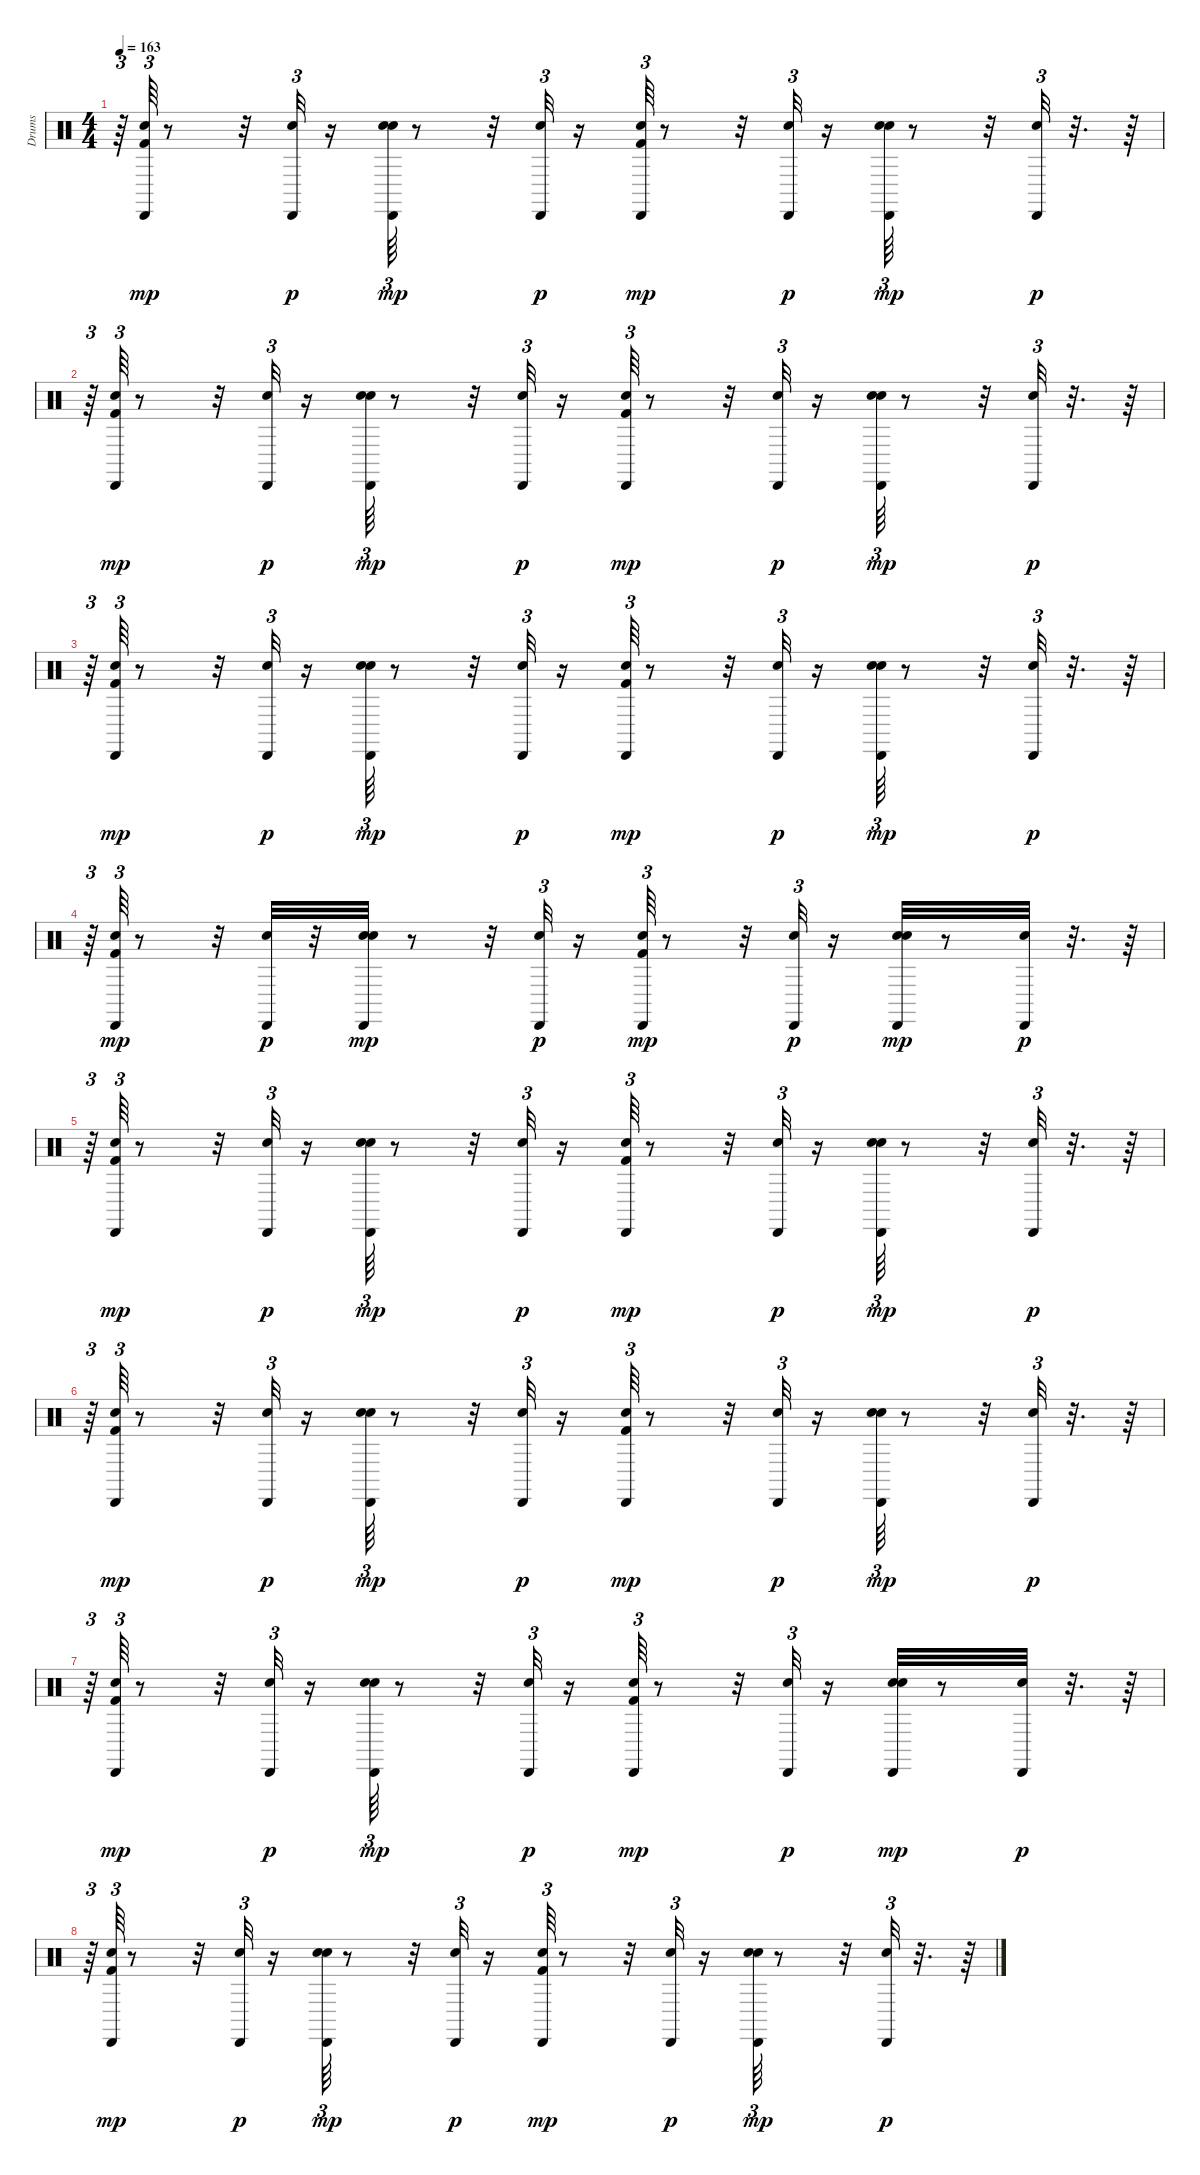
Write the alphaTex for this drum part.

\track ("Drums               " "Drums     ") {instrument percussion}
\staff {score}
\articulation defaults
\ts (4 4)
\tempo 163
\clef neutral
\ks c
r.64{tu (3 2) dy p} ("Kick (hit) 2" "Snare (hit) 2" "Cabasa (hit)").64{tu (3 2) dy mp} r.8 r.32 ("Snare (hit) 2" "Cabasa (hit)").32{tu (3 2) dy p} r.16 ("Snare (hit) 2" "Hand Clap (hit)" "Cabasa (hit)").64{tu (3 2) dy mp} r.8 r.32 ("Snare (hit) 2" "Cabasa (hit)").32{tu (3 2) dy p} r.16 ("Kick (hit) 2" "Snare (hit) 2" "Cabasa (hit)").64{tu (3 2) dy mp} r.8 r.32 ("Snare (hit) 2" "Cabasa (hit)").32{tu (3 2) dy p} r.16 ("Snare (hit) 2" "Hand Clap (hit)" "Cabasa (hit)").64{tu (3 2) dy mp} r.8 r.32 ("Snare (hit) 2" "Cabasa (hit)").32{tu (3 2) dy p} r.32{d} r.64 |
r.64{tu (3 2)} ("Kick (hit) 2" "Snare (hit) 2" "Cabasa (hit)").64{tu (3 2) dy mp} r.8 r.32 ("Snare (hit) 2" "Cabasa (hit)").32{tu (3 2) dy p} r.16 ("Snare (hit) 2" "Hand Clap (hit)" "Cabasa (hit)").64{tu (3 2) dy mp} r.8 r.32 ("Snare (hit) 2" "Cabasa (hit)").32{tu (3 2) dy p} r.16 ("Kick (hit) 2" "Snare (hit) 2" "Cabasa (hit)").64{tu (3 2) dy mp} r.8 r.32 ("Snare (hit) 2" "Cabasa (hit)").32{tu (3 2) dy p} r.16 ("Snare (hit) 2" "Hand Clap (hit)" "Cabasa (hit)").64{tu (3 2) dy mp} r.8 r.32 ("Snare (hit) 2" "Cabasa (hit)").32{tu (3 2) dy p} r.32{d} r.64 |
r.64{tu (3 2)} ("Kick (hit) 2" "Snare (hit) 2" "Cabasa (hit)").64{tu (3 2) dy mp} r.8 r.32 ("Snare (hit) 2" "Cabasa (hit)").32{tu (3 2) dy p} r.16 ("Snare (hit) 2" "Hand Clap (hit)" "Cabasa (hit)").64{tu (3 2) dy mp} r.8 r.32 ("Snare (hit) 2" "Cabasa (hit)").32{tu (3 2) dy p} r.16 ("Kick (hit) 2" "Snare (hit) 2" "Cabasa (hit)").64{tu (3 2) dy mp} r.8 r.32 ("Snare (hit) 2" "Cabasa (hit)").32{tu (3 2) dy p} r.16 ("Snare (hit) 2" "Hand Clap (hit)" "Cabasa (hit)").64{tu (3 2) dy mp} r.8 r.32 ("Snare (hit) 2" "Cabasa (hit)").32{tu (3 2) dy p} r.32{d} r.64 |
r.64{tu (3 2)} ("Kick (hit) 2" "Snare (hit) 2" "Cabasa (hit)").64{tu (3 2) dy mp} r.8 r.32 ("Snare (hit) 2" "Cabasa (hit)").32{dy p} r.32 ("Snare (hit) 2" "Hand Clap (hit)" "Cabasa (hit)").32{dy mp} r.8 r.32 ("Snare (hit) 2" "Cabasa (hit)").32{tu (3 2) dy p} r.16 ("Kick (hit) 2" "Snare (hit) 2" "Cabasa (hit)").64{tu (3 2) dy mp} r.8 r.32 ("Snare (hit) 2" "Cabasa (hit)").32{tu (3 2) dy p} r.16 ("Snare (hit) 2" "Hand Clap (hit)" "Cabasa (hit)").32{dy mp} r.8 ("Snare (hit) 2" "Cabasa (hit)").32{dy p} r.32{d} r.64 |
r.64{tu (3 2)} ("Kick (hit) 2" "Snare (hit) 2" "Cabasa (hit)").64{tu (3 2) dy mp} r.8 r.32 ("Snare (hit) 2" "Cabasa (hit)").32{tu (3 2) dy p} r.16 ("Snare (hit) 2" "Hand Clap (hit)" "Cabasa (hit)").64{tu (3 2) dy mp} r.8 r.32 ("Snare (hit) 2" "Cabasa (hit)").32{tu (3 2) dy p} r.16 ("Kick (hit) 2" "Snare (hit) 2" "Cabasa (hit)").64{tu (3 2) dy mp} r.8 r.32 ("Snare (hit) 2" "Cabasa (hit)").32{tu (3 2) dy p} r.16 ("Snare (hit) 2" "Hand Clap (hit)" "Cabasa (hit)").64{tu (3 2) dy mp} r.8 r.32 ("Snare (hit) 2" "Cabasa (hit)").32{tu (3 2) dy p} r.32{d} r.64 |
r.64{tu (3 2)} ("Kick (hit) 2" "Snare (hit) 2" "Cabasa (hit)").64{tu (3 2) dy mp} r.8 r.32 ("Snare (hit) 2" "Cabasa (hit)").32{tu (3 2) dy p} r.16 ("Snare (hit) 2" "Hand Clap (hit)" "Cabasa (hit)").64{tu (3 2) dy mp} r.8 r.32 ("Snare (hit) 2" "Cabasa (hit)").32{tu (3 2) dy p} r.16 ("Kick (hit) 2" "Snare (hit) 2" "Cabasa (hit)").64{tu (3 2) dy mp} r.8 r.32 ("Snare (hit) 2" "Cabasa (hit)").32{tu (3 2) dy p} r.16 ("Snare (hit) 2" "Hand Clap (hit)" "Cabasa (hit)").64{tu (3 2) dy mp} r.8 r.32 ("Snare (hit) 2" "Cabasa (hit)").32{tu (3 2) dy p} r.32{d} r.64 |
r.64{tu (3 2)} ("Kick (hit) 2" "Snare (hit) 2" "Cabasa (hit)").64{tu (3 2) dy mp} r.8 r.32 ("Snare (hit) 2" "Cabasa (hit)").32{tu (3 2) dy p} r.16 ("Snare (hit) 2" "Hand Clap (hit)" "Cabasa (hit)").64{tu (3 2) dy mp} r.8 r.32 ("Snare (hit) 2" "Cabasa (hit)").32{tu (3 2) dy p} r.16 ("Kick (hit) 2" "Snare (hit) 2" "Cabasa (hit)").64{tu (3 2) dy mp} r.8 r.32 ("Snare (hit) 2" "Cabasa (hit)").32{tu (3 2) dy p} r.16 ("Snare (hit) 2" "Hand Clap (hit)" "Cabasa (hit)").32{dy mp} r.8 ("Snare (hit) 2" "Cabasa (hit)").32{dy p} r.32{d} r.64 |
r.64{tu (3 2)} ("Kick (hit) 2" "Snare (hit) 2" "Cabasa (hit)").64{tu (3 2) dy mp} r.8 r.32 ("Snare (hit) 2" "Cabasa (hit)").32{tu (3 2) dy p} r.16 ("Snare (hit) 2" "Hand Clap (hit)" "Cabasa (hit)").64{tu (3 2) dy mp} r.8 r.32 ("Snare (hit) 2" "Cabasa (hit)").32{tu (3 2) dy p} r.16 ("Kick (hit) 2" "Snare (hit) 2" "Cabasa (hit)").64{tu (3 2) dy mp} r.8 r.32 ("Snare (hit) 2" "Cabasa (hit)").32{tu (3 2) dy p} r.16 ("Snare (hit) 2" "Hand Clap (hit)" "Cabasa (hit)").64{tu (3 2) dy mp} r.8 r.32 ("Snare (hit) 2" "Cabasa (hit)").32{tu (3 2) dy p} r.32{d} r.64
